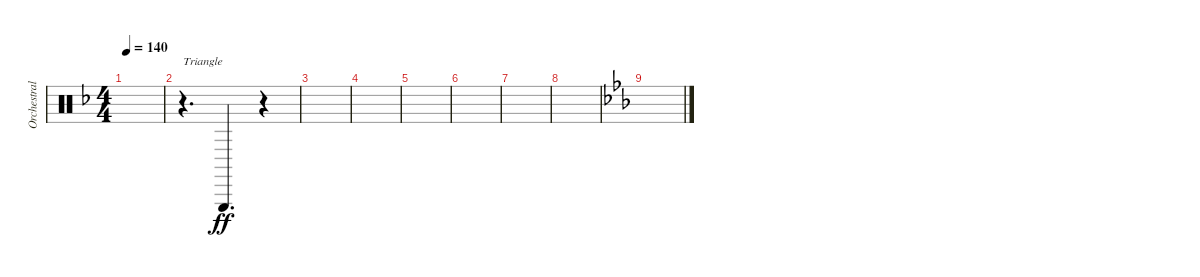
\track ("Orchestral Percussion I" "Orchestral") {instrument percussion}
\staff {score}
\articulation defaults
\ts (4 4)
\tempo 140
\clef neutral
\ks dminor
|
r.4{d txt "Triangle"} "Triangle (hit)".4{d dy ff} r.4 |
|
|
|
|
|
|
\ks cminor
